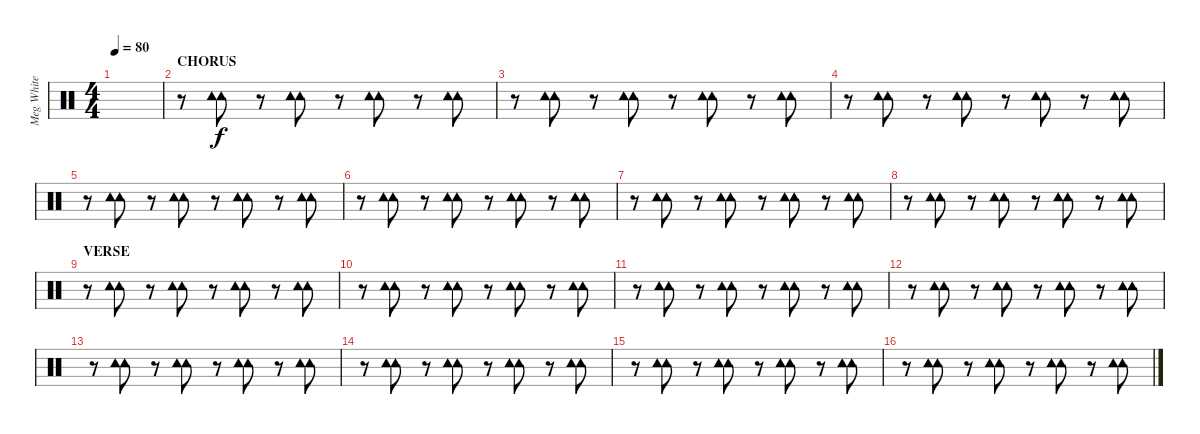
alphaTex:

\track ("Meg White (Tambourine)" "Meg White ") {instrument percussion}
\staff {score}
\articulation defaults
\ts (4 4)
\tempo 80
\clef neutral
\ks c
|
\section ("" "CHORUS")
r.8 ("Tambourine (hit)" "Tambourine (hit)").8 r.8 ("Tambourine (hit)" "Tambourine (hit)").8 r.8 ("Tambourine (hit)" "Tambourine (hit)").8 r.8 ("Tambourine (hit)" "Tambourine (hit)").8 |
r.8 ("Tambourine (hit)" "Tambourine (hit)").8 r.8 ("Tambourine (hit)" "Tambourine (hit)").8 r.8 ("Tambourine (hit)" "Tambourine (hit)").8 r.8 ("Tambourine (hit)" "Tambourine (hit)").8 |
r.8 ("Tambourine (hit)" "Tambourine (hit)").8 r.8 ("Tambourine (hit)" "Tambourine (hit)").8 r.8 ("Tambourine (hit)" "Tambourine (hit)").8 r.8 ("Tambourine (hit)" "Tambourine (hit)").8 |
r.8 ("Tambourine (hit)" "Tambourine (hit)").8 r.8 ("Tambourine (hit)" "Tambourine (hit)").8 r.8 ("Tambourine (hit)" "Tambourine (hit)").8 r.8 ("Tambourine (hit)" "Tambourine (hit)").8 |
r.8 ("Tambourine (hit)" "Tambourine (hit)").8 r.8 ("Tambourine (hit)" "Tambourine (hit)").8 r.8 ("Tambourine (hit)" "Tambourine (hit)").8 r.8 ("Tambourine (hit)" "Tambourine (hit)").8 |
r.8 ("Tambourine (hit)" "Tambourine (hit)").8 r.8 ("Tambourine (hit)" "Tambourine (hit)").8 r.8 ("Tambourine (hit)" "Tambourine (hit)").8 r.8 ("Tambourine (hit)" "Tambourine (hit)").8 |
r.8 ("Tambourine (hit)" "Tambourine (hit)").8 r.8 ("Tambourine (hit)" "Tambourine (hit)").8 r.8 ("Tambourine (hit)" "Tambourine (hit)").8 r.8 ("Tambourine (hit)" "Tambourine (hit)").8 |
\section ("" "VERSE")
r.8 ("Tambourine (hit)" "Tambourine (hit)").8 r.8 ("Tambourine (hit)" "Tambourine (hit)").8 r.8 ("Tambourine (hit)" "Tambourine (hit)").8 r.8 ("Tambourine (hit)" "Tambourine (hit)").8 |
r.8 ("Tambourine (hit)" "Tambourine (hit)").8 r.8 ("Tambourine (hit)" "Tambourine (hit)").8 r.8 ("Tambourine (hit)" "Tambourine (hit)").8 r.8 ("Tambourine (hit)" "Tambourine (hit)").8 |
r.8 ("Tambourine (hit)" "Tambourine (hit)").8 r.8 ("Tambourine (hit)" "Tambourine (hit)").8 r.8 ("Tambourine (hit)" "Tambourine (hit)").8 r.8 ("Tambourine (hit)" "Tambourine (hit)").8 |
r.8 ("Tambourine (hit)" "Tambourine (hit)").8 r.8 ("Tambourine (hit)" "Tambourine (hit)").8 r.8 ("Tambourine (hit)" "Tambourine (hit)").8 r.8 ("Tambourine (hit)" "Tambourine (hit)").8 |
r.8 ("Tambourine (hit)" "Tambourine (hit)").8 r.8 ("Tambourine (hit)" "Tambourine (hit)").8 r.8 ("Tambourine (hit)" "Tambourine (hit)").8 r.8 ("Tambourine (hit)" "Tambourine (hit)").8 |
r.8 ("Tambourine (hit)" "Tambourine (hit)").8 r.8 ("Tambourine (hit)" "Tambourine (hit)").8 r.8 ("Tambourine (hit)" "Tambourine (hit)").8 r.8 ("Tambourine (hit)" "Tambourine (hit)").8 |
r.8 ("Tambourine (hit)" "Tambourine (hit)").8 r.8 ("Tambourine (hit)" "Tambourine (hit)").8 r.8 ("Tambourine (hit)" "Tambourine (hit)").8 r.8 ("Tambourine (hit)" "Tambourine (hit)").8 |
r.8 ("Tambourine (hit)" "Tambourine (hit)").8 r.8 ("Tambourine (hit)" "Tambourine (hit)").8 r.8 ("Tambourine (hit)" "Tambourine (hit)").8 r.8 ("Tambourine (hit)" "Tambourine (hit)").8
